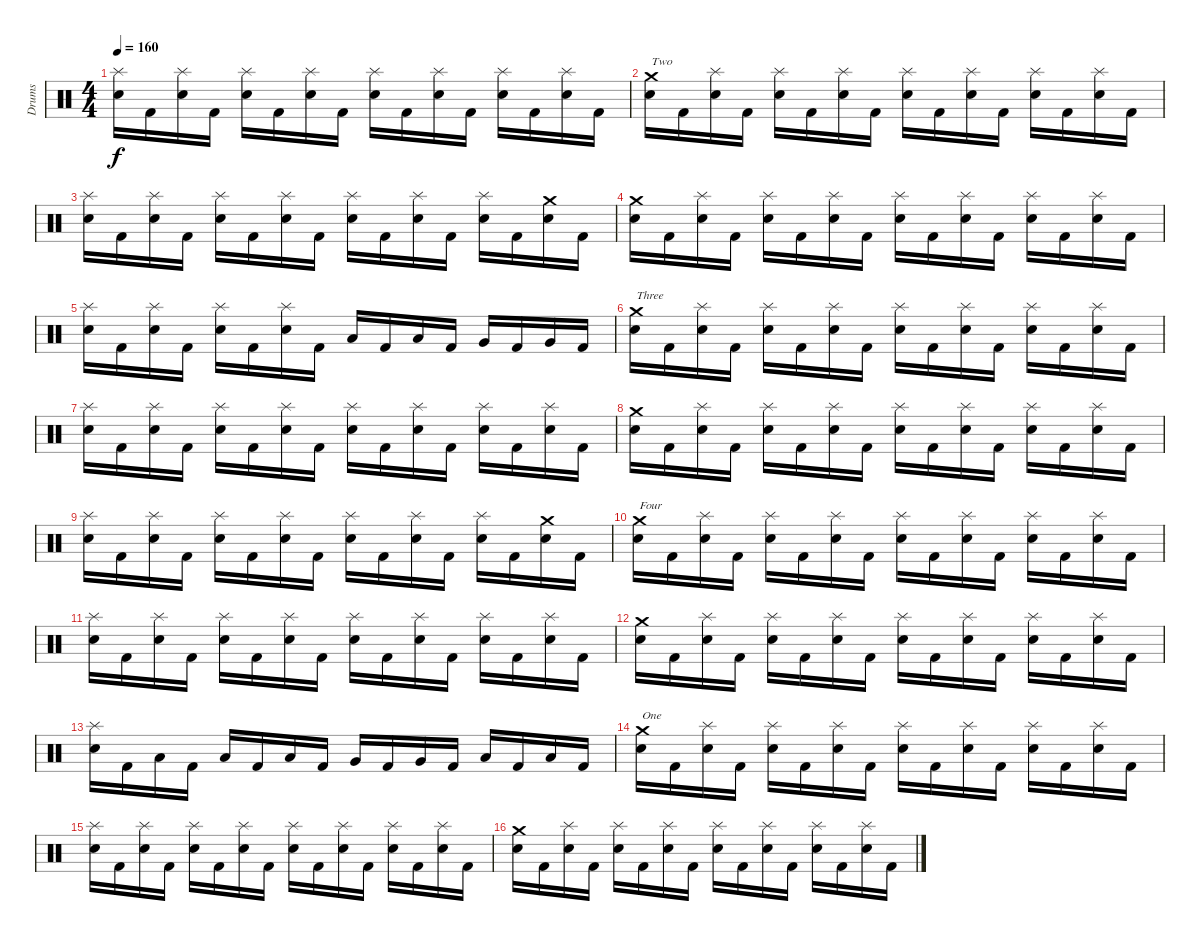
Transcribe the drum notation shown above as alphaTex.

\track ("Drums" "Drums") {instrument percussion}
\staff {score}
\articulation defaults
\ts (4 4)
\tempo 160
\clef neutral
\ks c
("Splash (hit)" "Snare (hit) 2").16{dy f} "Kick (hit) 2".16 ("Splash (hit)" "Snare (hit) 2").16 "Kick (hit) 2".16 ("Splash (hit)" "Snare (hit) 2").16 "Kick (hit) 2".16 ("Splash (hit)" "Snare (hit) 2").16 "Kick (hit) 2".16 ("Splash (hit)" "Snare (hit) 2").16 "Kick (hit) 2".16 ("Splash (hit)" "Snare (hit) 2").16 "Kick (hit) 2".16 ("Splash (hit)" "Snare (hit) 2").16 "Kick (hit) 2".16 ("Splash (hit)" "Snare (hit) 2").16 "Kick (hit) 2".16 |
("Crash medium (hit)" "Snare (hit) 2").16{txt "Two"} "Kick (hit) 2".16 ("Splash (hit)" "Snare (hit) 2").16 "Kick (hit) 2".16 ("Splash (hit)" "Snare (hit) 2").16 "Kick (hit) 2".16 ("Splash (hit)" "Snare (hit) 2").16 "Kick (hit) 2".16 ("Splash (hit)" "Snare (hit) 2").16 "Kick (hit) 2".16 ("Splash (hit)" "Snare (hit) 2").16 "Kick (hit) 2".16 ("Splash (hit)" "Snare (hit) 2").16 "Kick (hit) 2".16 ("Splash (hit)" "Snare (hit) 2").16 "Kick (hit) 2".16 |
("Splash (hit)" "Snare (hit) 2").16 "Kick (hit) 2".16 ("Splash (hit)" "Snare (hit) 2").16 "Kick (hit) 2".16 ("Splash (hit)" "Snare (hit) 2").16 "Kick (hit) 2".16 ("Splash (hit)" "Snare (hit) 2").16 "Kick (hit) 2".16 ("Splash (hit)" "Snare (hit) 2").16 "Kick (hit) 2".16 ("Splash (hit)" "Snare (hit) 2").16 "Kick (hit) 2".16 ("Splash (hit)" "Snare (hit) 2").16 "Kick (hit) 2".16 ("Crash medium (hit)" "Snare (hit) 2").16 "Kick (hit) 2".16 |
("Crash medium (hit)" "Snare (hit) 2").16 "Kick (hit) 2".16 ("Splash (hit)" "Snare (hit) 2").16 "Kick (hit) 2".16 ("Splash (hit)" "Snare (hit) 2").16 "Kick (hit) 2".16 ("Splash (hit)" "Snare (hit) 2").16 "Kick (hit) 2".16 ("Splash (hit)" "Snare (hit) 2").16 "Kick (hit) 2".16 ("Splash (hit)" "Snare (hit) 2").16 "Kick (hit) 2".16 ("Splash (hit)" "Snare (hit) 2").16 "Kick (hit) 2".16 ("Splash (hit)" "Snare (hit) 2").16 "Kick (hit) 2".16 |
("Splash (hit)" "Snare (hit) 2").16 "Kick (hit) 2".16 ("Splash (hit)" "Snare (hit) 2").16 "Kick (hit) 2".16 ("Splash (hit)" "Snare (hit) 2").16 "Kick (hit) 2".16 ("Splash (hit)" "Snare (hit) 2").16 "Kick (hit) 2".16 "Low Tom (hit)".16 "Kick (hit) 2".16 "Low Tom (hit)".16 "Kick (hit) 2".16 "Very Low Tom (hit)".16 "Kick (hit) 2".16 "Very Low Tom (hit)".16 "Kick (hit) 2".16 |
("Crash medium (hit)" "Snare (hit) 2").16{txt "Three"} "Kick (hit) 2".16 ("Splash (hit)" "Snare (hit) 2").16 "Kick (hit) 2".16 ("Splash (hit)" "Snare (hit) 2").16 "Kick (hit) 2".16 ("Splash (hit)" "Snare (hit) 2").16 "Kick (hit) 2".16 ("Splash (hit)" "Snare (hit) 2").16 "Kick (hit) 2".16 ("Splash (hit)" "Snare (hit) 2").16 "Kick (hit) 2".16 ("Splash (hit)" "Snare (hit) 2").16 "Kick (hit) 2".16 ("Splash (hit)" "Snare (hit) 2").16 "Kick (hit) 2".16 |
("Splash (hit)" "Snare (hit) 2").16 "Kick (hit) 2".16 ("Splash (hit)" "Snare (hit) 2").16 "Kick (hit) 2".16 ("Splash (hit)" "Snare (hit) 2").16 "Kick (hit) 2".16 ("Splash (hit)" "Snare (hit) 2").16 "Kick (hit) 2".16 ("Splash (hit)" "Snare (hit) 2").16 "Kick (hit) 2".16 ("Splash (hit)" "Snare (hit) 2").16 "Kick (hit) 2".16 ("Splash (hit)" "Snare (hit) 2").16 "Kick (hit) 2".16 ("Splash (hit)" "Snare (hit) 2").16 "Kick (hit) 2".16 |
("Crash medium (hit)" "Snare (hit) 2").16 "Kick (hit) 2".16 ("Splash (hit)" "Snare (hit) 2").16 "Kick (hit) 2".16 ("Splash (hit)" "Snare (hit) 2").16 "Kick (hit) 2".16 ("Splash (hit)" "Snare (hit) 2").16 "Kick (hit) 2".16 ("Splash (hit)" "Snare (hit) 2").16 "Kick (hit) 2".16 ("Splash (hit)" "Snare (hit) 2").16 "Kick (hit) 2".16 ("Splash (hit)" "Snare (hit) 2").16 "Kick (hit) 2".16 ("Splash (hit)" "Snare (hit) 2").16 "Kick (hit) 2".16 |
("Splash (hit)" "Snare (hit) 2").16 "Kick (hit) 2".16 ("Splash (hit)" "Snare (hit) 2").16 "Kick (hit) 2".16 ("Splash (hit)" "Snare (hit) 2").16 "Kick (hit) 2".16 ("Splash (hit)" "Snare (hit) 2").16 "Kick (hit) 2".16 ("Splash (hit)" "Snare (hit) 2").16 "Kick (hit) 2".16 ("Splash (hit)" "Snare (hit) 2").16 "Kick (hit) 2".16 ("Splash (hit)" "Snare (hit) 2").16 "Kick (hit) 2".16 ("Crash medium (hit)" "Snare (hit) 2").16 "Kick (hit) 2".16 |
("Crash medium (hit)" "Snare (hit) 2").16{txt "Four"} "Kick (hit) 2".16 ("Splash (hit)" "Snare (hit) 2").16 "Kick (hit) 2".16 ("Splash (hit)" "Snare (hit) 2").16 "Kick (hit) 2".16 ("Splash (hit)" "Snare (hit) 2").16 "Kick (hit) 2".16 ("Splash (hit)" "Snare (hit) 2").16 "Kick (hit) 2".16 ("Splash (hit)" "Snare (hit) 2").16 "Kick (hit) 2".16 ("Splash (hit)" "Snare (hit) 2").16 "Kick (hit) 2".16 ("Splash (hit)" "Snare (hit) 2").16 "Kick (hit) 2".16 |
("Splash (hit)" "Snare (hit) 2").16 "Kick (hit) 2".16 ("Splash (hit)" "Snare (hit) 2").16 "Kick (hit) 2".16 ("Splash (hit)" "Snare (hit) 2").16 "Kick (hit) 2".16 ("Splash (hit)" "Snare (hit) 2").16 "Kick (hit) 2".16 ("Splash (hit)" "Snare (hit) 2").16 "Kick (hit) 2".16 ("Splash (hit)" "Snare (hit) 2").16 "Kick (hit) 2".16 ("Splash (hit)" "Snare (hit) 2").16 "Kick (hit) 2".16 ("Splash (hit)" "Snare (hit) 2").16 "Kick (hit) 2".16 |
("Crash medium (hit)" "Snare (hit) 2").16 "Kick (hit) 2".16 ("Splash (hit)" "Snare (hit) 2").16 "Kick (hit) 2".16 ("Splash (hit)" "Snare (hit) 2").16 "Kick (hit) 2".16 ("Splash (hit)" "Snare (hit) 2").16 "Kick (hit) 2".16 ("Splash (hit)" "Snare (hit) 2").16 "Kick (hit) 2".16 ("Splash (hit)" "Snare (hit) 2").16 "Kick (hit) 2".16 ("Splash (hit)" "Snare (hit) 2").16 "Kick (hit) 2".16 ("Splash (hit)" "Snare (hit) 2").16 "Kick (hit) 2".16 |
("Splash (hit)" "Snare (hit) 2").16 "Kick (hit) 2".16 "Low Tom (hit)".16 "Kick (hit) 2".16 "Low Tom (hit)".16 "Kick (hit) 2".16 "Low Tom (hit)".16 "Kick (hit) 2".16 "Very Low Tom (hit)".16 "Kick (hit) 2".16 "Very Low Tom (hit)".16 "Kick (hit) 2".16 "Low Floor Tom (hit)".16 "Kick (hit) 2".16 "Low Floor Tom (hit)".16 "Kick (hit) 2".16 |
("Crash medium (hit)" "Snare (hit) 2").16{txt "One"} "Kick (hit) 2".16 ("Splash (hit)" "Snare (hit) 2").16 "Kick (hit) 2".16 ("Splash (hit)" "Snare (hit) 2").16 "Kick (hit) 2".16 ("Splash (hit)" "Snare (hit) 2").16 "Kick (hit) 2".16 ("Splash (hit)" "Snare (hit) 2").16 "Kick (hit) 2".16 ("Splash (hit)" "Snare (hit) 2").16 "Kick (hit) 2".16 ("Splash (hit)" "Snare (hit) 2").16 "Kick (hit) 2".16 ("Splash (hit)" "Snare (hit) 2").16 "Kick (hit) 2".16 |
("Splash (hit)" "Snare (hit) 2").16 "Kick (hit) 2".16 ("Splash (hit)" "Snare (hit) 2").16 "Kick (hit) 2".16 ("Splash (hit)" "Snare (hit) 2").16 "Kick (hit) 2".16 ("Splash (hit)" "Snare (hit) 2").16 "Kick (hit) 2".16 ("Splash (hit)" "Snare (hit) 2").16 "Kick (hit) 2".16 ("Splash (hit)" "Snare (hit) 2").16 "Kick (hit) 2".16 ("Splash (hit)" "Snare (hit) 2").16 "Kick (hit) 2".16 ("Splash (hit)" "Snare (hit) 2").16 "Kick (hit) 2".16 |
("Crash medium (hit)" "Snare (hit) 2").16 "Kick (hit) 2".16 ("Splash (hit)" "Snare (hit) 2").16 "Kick (hit) 2".16 ("Splash (hit)" "Snare (hit) 2").16 "Kick (hit) 2".16 ("Splash (hit)" "Snare (hit) 2").16 "Kick (hit) 2".16 ("Splash (hit)" "Snare (hit) 2").16 "Kick (hit) 2".16 ("Splash (hit)" "Snare (hit) 2").16 "Kick (hit) 2".16 ("Splash (hit)" "Snare (hit) 2").16 "Kick (hit) 2".16 ("Splash (hit)" "Snare (hit) 2").16 "Kick (hit) 2".16
